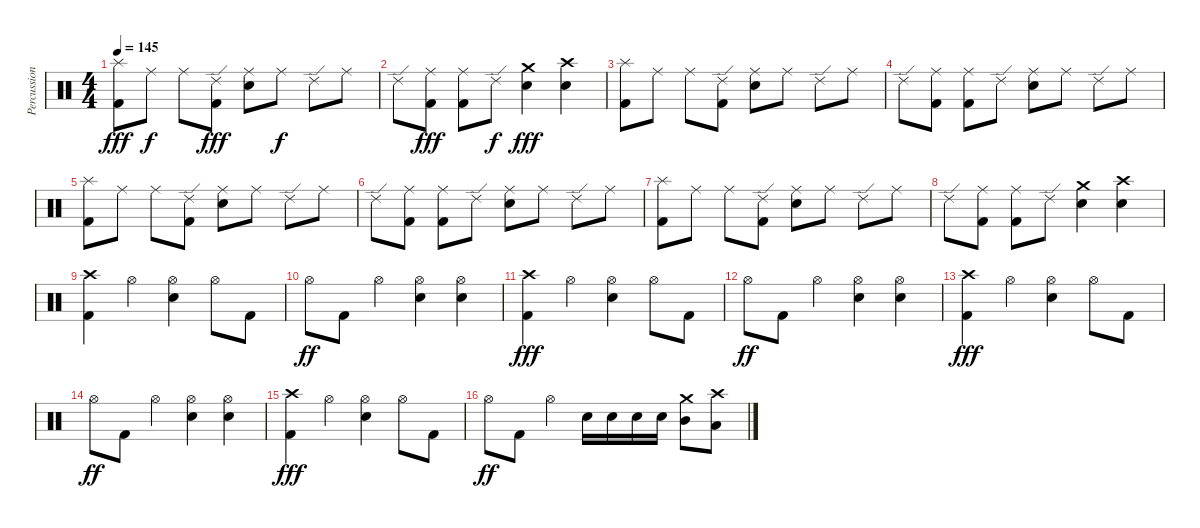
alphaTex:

\track ("Percussion" "Percussion") {instrument percussion}
\staff {score}
\articulation defaults
\ts (4 4)
\tempo 145
\clef neutral
\ks c
("Splash (hit)" "Kick (hit) 2").8{dy fff} "Ride (middle)".8{dy f} "Ride (middle)".8 ("Ride (edge) 2" "Kick (hit) 2").8{dy fff} ("Ride (middle)" "Electric Snare (hit)").8 "Ride (middle)".8{dy f} "Ride (edge) 2".8 "Ride (middle)".8 |
"Ride (edge) 2".8 ("Ride (middle)" "Kick (hit) 2").8{dy fff} ("Ride (middle)" "Kick (hit) 2").8 "Ride (edge) 2".8{dy f} ("Crash medium (hit)" "Electric Snare (hit)").4{dy fff} ("Crash high (hit)" "Electric Snare (hit)").4 |
("Splash (hit)" "Kick (hit) 2").8 "Ride (middle)".8 "Ride (middle)".8 ("Ride (edge) 2" "Kick (hit) 2").8 ("Ride (middle)" "Electric Snare (hit)").8 "Ride (middle)".8 "Ride (edge) 2".8 "Ride (middle)".8 |
"Ride (edge) 2".8 ("Ride (middle)" "Kick (hit) 2").8 ("Ride (middle)" "Kick (hit) 2").8 "Ride (edge) 2".8 ("Ride (middle)" "Electric Snare (hit)").8 "Ride (middle)".8 "Ride (edge) 2".8 "Ride (middle)".8 |
("Splash (hit)" "Kick (hit) 2").8 "Ride (middle)".8 "Ride (middle)".8 ("Ride (edge) 2" "Kick (hit) 2").8 ("Ride (middle)" "Electric Snare (hit)").8 "Ride (middle)".8 "Ride (edge) 2".8 "Ride (middle)".8 |
"Ride (edge) 2".8 ("Ride (middle)" "Kick (hit) 2").8 ("Ride (middle)" "Kick (hit) 2").8 "Ride (edge) 2".8 ("Ride (middle)" "Electric Snare (hit)").8 "Ride (middle)".8 "Ride (edge) 2".8 "Ride (middle)".8 |
("Splash (hit)" "Kick (hit) 2").8 "Ride (middle)".8 "Ride (middle)".8 ("Ride (edge) 2" "Kick (hit) 2").8 ("Ride (middle)" "Electric Snare (hit)").8 "Ride (middle)".8 "Ride (edge) 2".8 "Ride (middle)".8 |
"Ride (edge) 2".8 ("Ride (middle)" "Kick (hit) 2").8 ("Ride (middle)" "Kick (hit) 2").8 "Ride (edge) 2".8 ("Crash medium (hit)" "Electric Snare (hit)").4 ("Crash high (hit)" "Electric Snare (hit)").4 |
("Crash high (hit)" "Kick (hit) 2").4 "Hi-Hat (open)".4 ("Hi-Hat (open)" "Electric Snare (hit)").4 "Hi-Hat (open)".8 "Kick (hit) 2".8 |
"Hi-Hat (open)".8{dy ff} "Kick (hit) 2".8 "Hi-Hat (open)".4 ("Hi-Hat (open)" "Electric Snare (hit)").4 ("Hi-Hat (open)" "Electric Snare (hit)").4 |
("Crash high (hit)" "Kick (hit) 2").4{dy fff} "Hi-Hat (open)".4 ("Hi-Hat (open)" "Electric Snare (hit)").4 "Hi-Hat (open)".8 "Kick (hit) 2".8 |
"Hi-Hat (open)".8{dy ff} "Kick (hit) 2".8 "Hi-Hat (open)".4 ("Hi-Hat (open)" "Electric Snare (hit)").4 ("Hi-Hat (open)" "Electric Snare (hit)").4 |
("Crash high (hit)" "Kick (hit) 2").4{dy fff} "Hi-Hat (open)".4 ("Hi-Hat (open)" "Electric Snare (hit)").4 "Hi-Hat (open)".8 "Kick (hit) 2".8 |
"Hi-Hat (open)".8{dy ff} "Kick (hit) 2".8 "Hi-Hat (open)".4 ("Hi-Hat (open)" "Electric Snare (hit)").4 ("Hi-Hat (open)" "Electric Snare (hit)").4 |
("Crash high (hit)" "Kick (hit) 2").4{dy fff} "Hi-Hat (open)".4 ("Hi-Hat (open)" "Electric Snare (hit)").4 "Hi-Hat (open)".8 "Kick (hit) 2".8 |
"Hi-Hat (open)".8{dy ff} "Kick (hit) 2".8 "Hi-Hat (open)".4 "Electric Snare (hit)".16 "Electric Snare (hit)".16 "Electric Snare (hit)".16 "Electric Snare (hit)".16 ("Crash medium (hit)" "Mid Tom (hit)").8 ("Crash high (hit)" "Low Tom (hit)").8
